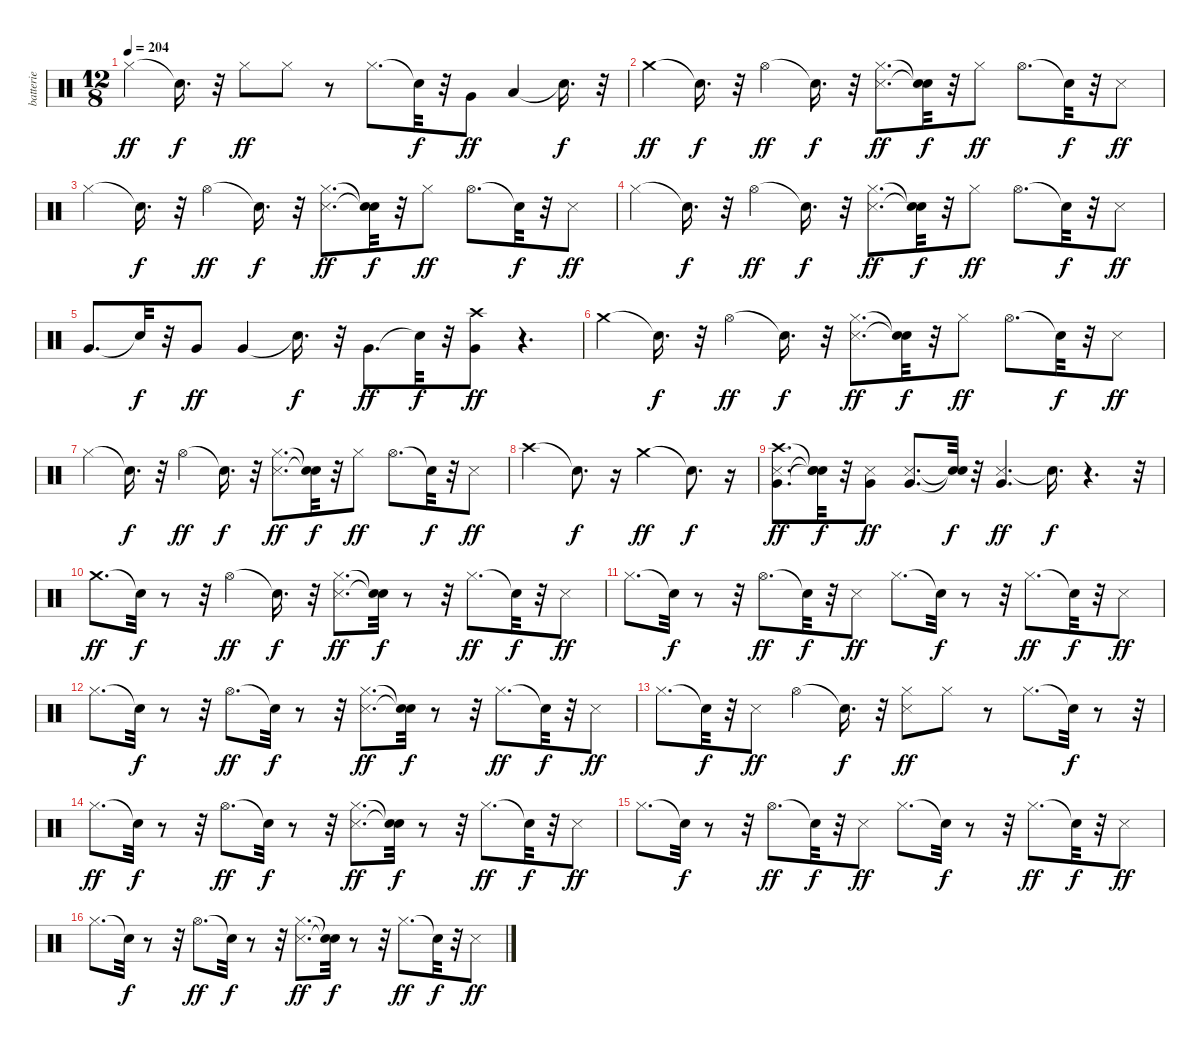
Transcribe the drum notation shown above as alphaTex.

\track ("batterie" "batterie") {instrument percussion}
\staff {score}
\articulation defaults
\ts (12 8)
\tempo 204
\clef neutral
\ks c "Hi-Hat (closed)".4{dy ff} "Snare (hit)"{t}.16{d dy f}
r.32 "Hi-Hat (closed)".8{dy ff} "Hi-Hat (closed)".8 r.8 "Hi-Hat (closed)".8{d} "Snare (hit)"{t}.32{dy f} r.32 "Very Low Tom (hit)".8{dy ff} "Low Floor Tom (hit)".4 "Snare (hit)"{t}.16{d dy f} r.32 |
"Crash medium (hit)".4{dy ff} "Snare (hit)"{t}.16{d dy f} r.32 "Hi-Hat (open)".4{dy ff} "Snare (hit)"{t}.16{d dy f} r.32 ("Snare (side stick) 3" "Hi-Hat (closed)").8{d dy ff} ("Snare (hit)"{t} "Snare (hit)"{t}).32{dy f} r.32 "Hi-Hat (closed)".8{dy ff} "Hi-Hat (open)".8{d} "Snare (hit)"{t}.32{dy f} r.32 "Snare (side stick) 3".8{dy ff} |
"Hi-Hat (closed)".4 "Snare (hit)"{t}.16{d dy f} r.32 "Hi-Hat (open)".4{dy ff} "Snare (hit)"{t}.16{d dy f} r.32 ("Snare (side stick) 3" "Hi-Hat (closed)").8{d dy ff} ("Snare (hit)"{t} "Snare (hit)"{t}).32{dy f} r.32 "Hi-Hat (closed)".8{dy ff} "Hi-Hat (open)".8{d} "Snare (hit)"{t}.32{dy f} r.32 "Snare (side stick) 3".8{dy ff} |
"Hi-Hat (closed)".4 "Snare (hit)"{t}.16{d dy f} r.32 "Hi-Hat (open)".4{dy ff} "Snare (hit)"{t}.16{d dy f} r.32 ("Snare (side stick) 3" "Hi-Hat (closed)").8{d dy ff} ("Snare (hit)"{t} "Snare (hit)"{t}).32{dy f} r.32 "Hi-Hat (closed)".8{dy ff} "Hi-Hat (open)".8{d} "Snare (hit)"{t}.32{dy f} r.32 "Snare (side stick) 3".8{dy ff} |
"Very Low Tom (hit)".8{d} "Snare (hit)"{t}.32{dy f} r.32 "Very Low Tom (hit)".8{dy ff} "Very Low Tom (hit)".4 "Snare (hit)"{t}.16{d dy f} r.32 "Very Low Tom (hit)".8{d dy ff} "Snare (hit)"{t}.32{dy f} r.32 ("Very Low Tom (hit)" "Crash high (hit)").8{dy ff} r.4{d} |
"Crash medium (hit)".4 "Snare (hit)"{t}.16{d dy f} r.32 "Hi-Hat (open)".4{dy ff} "Snare (hit)"{t}.16{d dy f} r.32 ("Snare (side stick) 3" "Hi-Hat (closed)").8{d dy ff} ("Snare (hit)"{t} "Snare (hit)"{t}).32{dy f} r.32 "Hi-Hat (closed)".8{dy ff} "Hi-Hat (open)".8{d} "Snare (hit)"{t}.32{dy f} r.32 "Snare (side stick) 3".8{dy ff} |
"Hi-Hat (closed)".4 "Snare (hit)"{t}.16{d dy f} r.32 "Hi-Hat (open)".4{dy ff} "Snare (hit)"{t}.16{d dy f} r.32 ("Snare (side stick) 3" "Hi-Hat (closed)").8{d dy ff} ("Snare (hit)"{t} "Snare (hit)"{t}).32{dy f} r.32 "Hi-Hat (closed)".8{dy ff} "Hi-Hat (open)".8{d} "Snare (hit)"{t}.32{dy f} r.32 "Snare (side stick) 3".8{dy ff} |
"Crash high (hit)".2 "Snare (hit)"{t}.8{d dy f} r.16 "Crash medium (hit)".2{dy ff} "Snare (hit)"{t}.8{d dy f} r.16 |
("Snare (side stick) 3" "Very Low Tom (hit)" "Crash high (hit)").8{d dy ff} ("Snare (hit)"{t} "Snare (hit)"{t} "Snare (hit)"{t}).32{dy f} r.32 ("Snare (side stick) 3" "Very Low Tom (hit)").8{dy ff} ("Snare (side stick) 3" "Very Low Tom (hit)").8{d} ("Snare (hit)"{t} "Snare (hit)"{t}).32{dy f} r.32 ("Snare (side stick) 3" "Very Low Tom (hit)").4{d dy ff} "Snare (hit)"{t}.16{d dy f} r.4{d} r.32 |
"Crash medium (hit)".8{d dy ff} "Snare (hit)"{t}.32{dy f} r.8 r.32 "Hi-Hat (open)".4{dy ff} "Snare (hit)"{t}.16{d dy f} r.32 ("Snare (side stick) 3" "Hi-Hat (closed)").8{d dy ff} ("Snare (hit)"{t} "Snare (hit)"{t}).32{dy f} r.8 r.32 "Hi-Hat (closed)".8{d dy ff} "Snare (hit)"{t}.32{dy f} r.32 "Snare (side stick) 3".8{dy ff} |
"Hi-Hat (closed)".8{d} "Snare (hit)"{t}.32{dy f} r.8 r.32 "Hi-Hat (open)".8{d dy ff} "Snare (hit)"{t}.32{dy f} r.32 "Snare (side stick) 3".8{dy ff} "Hi-Hat (closed)".8{d} "Snare (hit)"{t}.32{dy f} r.8 r.32 "Hi-Hat (closed)".8{d dy ff} "Snare (hit)"{t}.32{dy f} r.32 "Snare (side stick) 3".8{dy ff} |
"Hi-Hat (closed)".8{d} "Snare (hit)"{t}.32{dy f} r.8 r.32 "Hi-Hat (open)".8{d dy ff} "Snare (hit)"{t}.32{dy f} r.8 r.32 ("Snare (side stick) 3" "Hi-Hat (closed)").8{d dy ff} ("Snare (hit)"{t} "Snare (hit)"{t}).32{dy f} r.8 r.32 "Hi-Hat (closed)".8{d dy ff} "Snare (hit)"{t}.32{dy f} r.32 "Snare (side stick) 3".8{dy ff} |
"Hi-Hat (closed)".8{d} "Snare (hit)"{t}.32{dy f} r.32 "Snare (side stick) 3".8{dy ff} "Hi-Hat (open)".4 "Snare (hit)"{t}.16{d dy f} r.32 ("Snare (side stick) 3" "Hi-Hat (closed)").8{dy ff} "Hi-Hat (closed)".8 r.8 "Hi-Hat (closed)".8{d} "Snare (hit)"{t}.32{dy f} r.8 r.32 |
"Hi-Hat (closed)".8{d dy ff} "Snare (hit)"{t}.32{dy f} r.8 r.32 "Hi-Hat (open)".8{d dy ff} "Snare (hit)"{t}.32{dy f} r.8 r.32 ("Snare (side stick) 3" "Hi-Hat (closed)").8{d dy ff} ("Snare (hit)"{t} "Snare (hit)"{t}).32{dy f} r.8 r.32 "Hi-Hat (closed)".8{d dy ff} "Snare (hit)"{t}.32{dy f} r.32 "Snare (side stick) 3".8{dy ff} |
"Hi-Hat (closed)".8{d} "Snare (hit)"{t}.32{dy f} r.8 r.32 "Hi-Hat (open)".8{d dy ff} "Snare (hit)"{t}.32{dy f} r.32 "Snare (side stick) 3".8{dy ff} "Hi-Hat (closed)".8{d} "Snare (hit)"{t}.32{dy f} r.8 r.32 "Hi-Hat (closed)".8{d dy ff} "Snare (hit)"{t}.32{dy f} r.32 "Snare (side stick) 3".8{dy ff} |
"Hi-Hat (closed)".8{d} "Snare (hit)"{t}.32{dy f} r.8 r.32 "Hi-Hat (open)".8{d dy ff} "Snare (hit)"{t}.32{dy f} r.8 r.32 ("Snare (side stick) 3" "Hi-Hat (closed)").8{d dy ff} ("Snare (hit)"{t} "Snare (hit)"{t}).32{dy f} r.8 r.32 "Hi-Hat (closed)".8{d dy ff} "Snare (hit)"{t}.32{dy f} r.32 "Snare (side stick) 3".8{dy ff}
